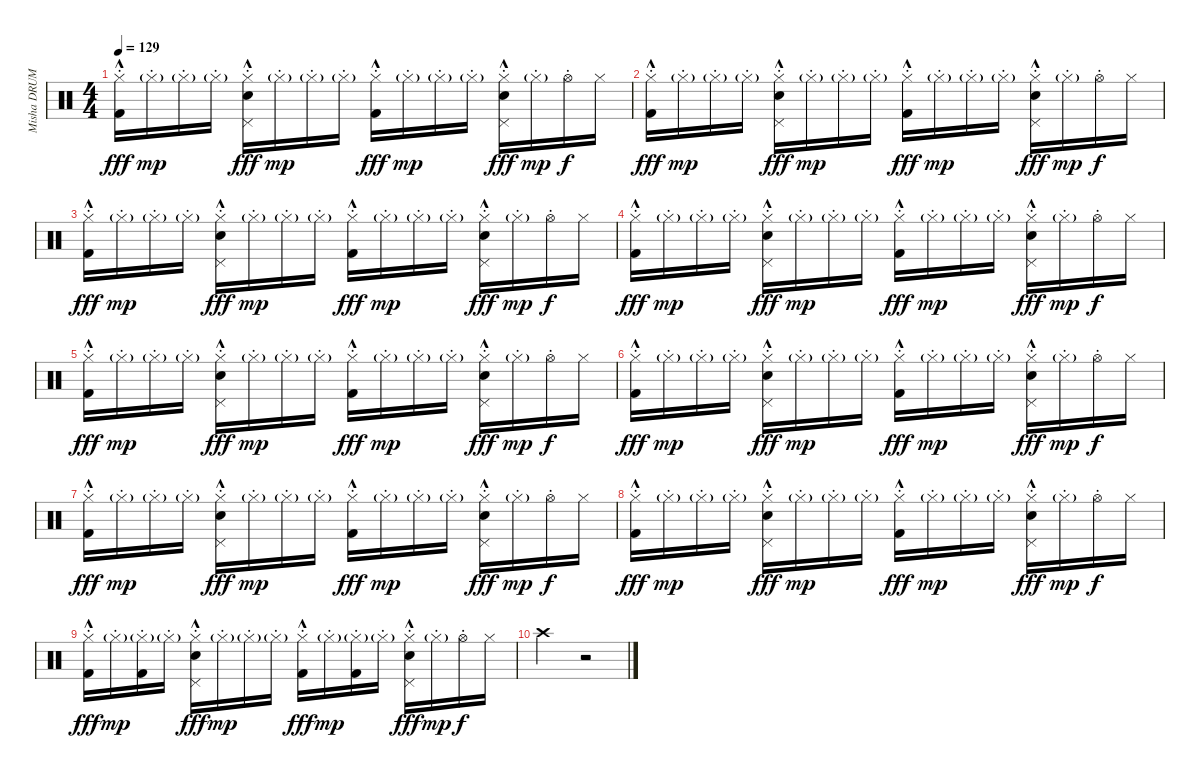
\track ("Misha DRUMS" "Misha DRUM") {instrument percussion}
\staff {score}
\articulation defaults
\ts (4 4)
\tempo 129
\clef neutral
\ks c
("Hi-Hat (closed)"{hac st} "Kick (hit) 2").16{dy fff} "Hi-Hat (closed)"{g st}.16{dy mp} "Hi-Hat (closed)"{g st}.16 "Hi-Hat (closed)"{g st}.16 ("Hi-Hat (closed)"{hac st} "Pedal Hi-Hat (hit)" "Snare (hit) 2").16{dy fff} "Hi-Hat (closed)"{g st}.16{dy mp} "Hi-Hat (closed)"{g st}.16 "Hi-Hat (closed)"{g st}.16 ("Hi-Hat (closed)"{hac st} "Kick (hit) 2").16{dy fff} "Hi-Hat (closed)"{g st}.16{dy mp} "Hi-Hat (closed)"{g st}.16 "Hi-Hat (closed)"{g st}.16 ("Hi-Hat (closed)"{hac st} "Pedal Hi-Hat (hit)" "Snare (hit) 2").16{dy fff} "Hi-Hat (closed)"{g st}.16{dy mp} "Hi-Hat (open)"{st}.16{dy f} "Hi-Hat (closed)".16 |
("Hi-Hat (closed)"{hac st} "Kick (hit) 2").16{dy fff} "Hi-Hat (closed)"{g st}.16{dy mp} "Hi-Hat (closed)"{g st}.16 "Hi-Hat (closed)"{g st}.16 ("Hi-Hat (closed)"{hac st} "Pedal Hi-Hat (hit)" "Snare (hit) 2").16{dy fff} "Hi-Hat (closed)"{g st}.16{dy mp} "Hi-Hat (closed)"{g st}.16 "Hi-Hat (closed)"{g st}.16 ("Hi-Hat (closed)"{hac st} "Kick (hit) 2").16{dy fff} "Hi-Hat (closed)"{g st}.16{dy mp} "Hi-Hat (closed)"{g st}.16 "Hi-Hat (closed)"{g st}.16 ("Hi-Hat (closed)"{hac st} "Pedal Hi-Hat (hit)" "Snare (hit) 2").16{dy fff} "Hi-Hat (closed)"{g st}.16{dy mp} "Hi-Hat (open)"{st}.16{dy f} "Hi-Hat (closed)".16 |
("Hi-Hat (closed)"{hac st} "Kick (hit) 2").16{dy fff} "Hi-Hat (closed)"{g st}.16{dy mp} "Hi-Hat (closed)"{g st}.16 "Hi-Hat (closed)"{g st}.16 ("Hi-Hat (closed)"{hac st} "Pedal Hi-Hat (hit)" "Snare (hit) 2").16{dy fff} "Hi-Hat (closed)"{g st}.16{dy mp} "Hi-Hat (closed)"{g st}.16 "Hi-Hat (closed)"{g st}.16 ("Hi-Hat (closed)"{hac st} "Kick (hit) 2").16{dy fff} "Hi-Hat (closed)"{g st}.16{dy mp} "Hi-Hat (closed)"{g st}.16 "Hi-Hat (closed)"{g st}.16 ("Hi-Hat (closed)"{hac st} "Pedal Hi-Hat (hit)" "Snare (hit) 2").16{dy fff} "Hi-Hat (closed)"{g st}.16{dy mp} "Hi-Hat (open)"{st}.16{dy f} "Hi-Hat (closed)".16 |
("Hi-Hat (closed)"{hac st} "Kick (hit) 2").16{dy fff} "Hi-Hat (closed)"{g st}.16{dy mp} "Hi-Hat (closed)"{g st}.16 "Hi-Hat (closed)"{g st}.16 ("Hi-Hat (closed)"{hac st} "Pedal Hi-Hat (hit)" "Snare (hit) 2").16{dy fff} "Hi-Hat (closed)"{g st}.16{dy mp} "Hi-Hat (closed)"{g st}.16 "Hi-Hat (closed)"{g st}.16 ("Hi-Hat (closed)"{hac st} "Kick (hit) 2").16{dy fff} "Hi-Hat (closed)"{g st}.16{dy mp} "Hi-Hat (closed)"{g st}.16 "Hi-Hat (closed)"{g st}.16 ("Hi-Hat (closed)"{hac st} "Pedal Hi-Hat (hit)" "Snare (hit) 2").16{dy fff} "Hi-Hat (closed)"{g st}.16{dy mp} "Hi-Hat (open)"{st}.16{dy f} "Hi-Hat (closed)".16 |
("Hi-Hat (closed)"{hac st} "Kick (hit) 2").16{dy fff} "Hi-Hat (closed)"{g st}.16{dy mp} "Hi-Hat (closed)"{g st}.16 "Hi-Hat (closed)"{g st}.16 ("Hi-Hat (closed)"{hac st} "Pedal Hi-Hat (hit)" "Snare (hit) 2").16{dy fff} "Hi-Hat (closed)"{g st}.16{dy mp} "Hi-Hat (closed)"{g st}.16 "Hi-Hat (closed)"{g st}.16 ("Hi-Hat (closed)"{hac st} "Kick (hit) 2").16{dy fff} "Hi-Hat (closed)"{g st}.16{dy mp} "Hi-Hat (closed)"{g st}.16 "Hi-Hat (closed)"{g st}.16 ("Hi-Hat (closed)"{hac st} "Pedal Hi-Hat (hit)" "Snare (hit) 2").16{dy fff} "Hi-Hat (closed)"{g st}.16{dy mp} "Hi-Hat (open)"{st}.16{dy f} "Hi-Hat (closed)".16 |
("Hi-Hat (closed)"{hac st} "Kick (hit) 2").16{dy fff} "Hi-Hat (closed)"{g st}.16{dy mp} "Hi-Hat (closed)"{g st}.16 "Hi-Hat (closed)"{g st}.16 ("Hi-Hat (closed)"{hac st} "Pedal Hi-Hat (hit)" "Snare (hit) 2").16{dy fff} "Hi-Hat (closed)"{g st}.16{dy mp} "Hi-Hat (closed)"{g st}.16 "Hi-Hat (closed)"{g st}.16 ("Hi-Hat (closed)"{hac st} "Kick (hit) 2").16{dy fff} "Hi-Hat (closed)"{g st}.16{dy mp} "Hi-Hat (closed)"{g st}.16 "Hi-Hat (closed)"{g st}.16 ("Hi-Hat (closed)"{hac st} "Pedal Hi-Hat (hit)" "Snare (hit) 2").16{dy fff} "Hi-Hat (closed)"{g st}.16{dy mp} "Hi-Hat (open)"{st}.16{dy f} "Hi-Hat (closed)".16 |
("Hi-Hat (closed)"{hac st} "Kick (hit) 2").16{dy fff} "Hi-Hat (closed)"{g st}.16{dy mp} "Hi-Hat (closed)"{g st}.16 "Hi-Hat (closed)"{g st}.16 ("Hi-Hat (closed)"{hac st} "Pedal Hi-Hat (hit)" "Snare (hit) 2").16{dy fff} "Hi-Hat (closed)"{g st}.16{dy mp} "Hi-Hat (closed)"{g st}.16 "Hi-Hat (closed)"{g st}.16 ("Hi-Hat (closed)"{hac st} "Kick (hit) 2").16{dy fff} "Hi-Hat (closed)"{g st}.16{dy mp} "Hi-Hat (closed)"{g st}.16 "Hi-Hat (closed)"{g st}.16 ("Hi-Hat (closed)"{hac st} "Pedal Hi-Hat (hit)" "Snare (hit) 2").16{dy fff} "Hi-Hat (closed)"{g st}.16{dy mp} "Hi-Hat (open)"{st}.16{dy f} "Hi-Hat (closed)".16 |
("Hi-Hat (closed)"{hac st} "Kick (hit) 2").16{dy fff} "Hi-Hat (closed)"{g st}.16{dy mp} "Hi-Hat (closed)"{g st}.16 "Hi-Hat (closed)"{g st}.16 ("Hi-Hat (closed)"{hac st} "Pedal Hi-Hat (hit)" "Snare (hit) 2").16{dy fff} "Hi-Hat (closed)"{g st}.16{dy mp} "Hi-Hat (closed)"{g st}.16 "Hi-Hat (closed)"{g st}.16 ("Hi-Hat (closed)"{hac st} "Kick (hit) 2").16{dy fff} "Hi-Hat (closed)"{g st}.16{dy mp} "Hi-Hat (closed)"{g st}.16 "Hi-Hat (closed)"{g st}.16 ("Hi-Hat (closed)"{hac st} "Pedal Hi-Hat (hit)" "Snare (hit) 2").16{dy fff} "Hi-Hat (closed)"{g st}.16{dy mp} "Hi-Hat (open)"{st}.16{dy f} "Hi-Hat (closed)".16 |
("Hi-Hat (closed)"{hac st} "Kick (hit) 2").16{dy fff} "Hi-Hat (closed)"{g st}.16{dy mp} ("Hi-Hat (closed)"{g st} "Kick (hit) 2").16 "Hi-Hat (closed)"{g st}.16 ("Hi-Hat (closed)"{hac st} "Pedal Hi-Hat (hit)" "Snare (hit) 2").16{dy fff} "Hi-Hat (closed)"{g st}.16{dy mp} "Hi-Hat (closed)"{g st}.16 "Hi-Hat (closed)"{g st}.16 ("Hi-Hat (closed)"{hac st} "Kick (hit) 2").16{dy fff} "Hi-Hat (closed)"{g st}.16{dy mp} ("Hi-Hat (closed)"{g st} "Kick (hit) 2").16 "Hi-Hat (closed)"{g st}.16 ("Hi-Hat (closed)"{hac st} "Pedal Hi-Hat (hit)" "Snare (hit) 2").16{dy fff} "Hi-Hat (closed)"{g st}.16{dy mp} "Hi-Hat (open)"{st}.16{dy f} "Hi-Hat (closed)".16 |
"Crash high (hit)".2 r.2
